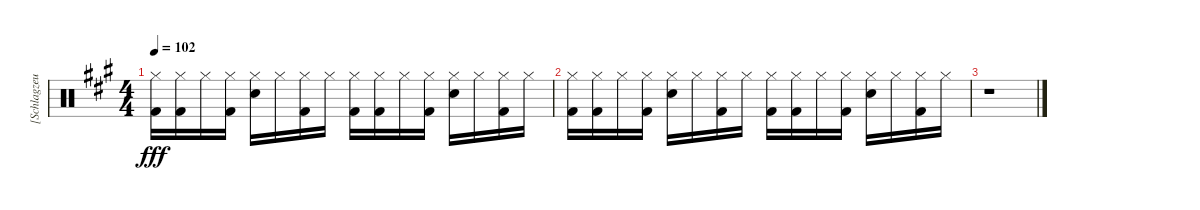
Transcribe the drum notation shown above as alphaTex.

\track ("[Schlagzeug]" "[Schlagzeu") {instrument percussion}
\staff {score}
\articulation defaults
\ts (4 4)
\tempo 102
\clef neutral
\ks f#minor
("Kick (hit) 2" "Hi-Hat (closed)").16{dy fff} ("Kick (hit) 2" "Hi-Hat (closed)").16 "Hi-Hat (closed)".16 ("Kick (hit) 2" "Hi-Hat (closed)").16 ("Electric Snare (hit)" "Hi-Hat (closed)").16 "Hi-Hat (closed)".16 ("Kick (hit) 2" "Hi-Hat (closed)").16 "Hi-Hat (closed)".16 ("Kick (hit) 2" "Hi-Hat (closed)").16 ("Kick (hit) 2" "Hi-Hat (closed)").16 "Hi-Hat (closed)".16 ("Kick (hit) 2" "Hi-Hat (closed)").16 ("Electric Snare (hit)" "Hi-Hat (closed)").16 "Hi-Hat (closed)".16 ("Kick (hit) 2" "Hi-Hat (closed)").16 "Hi-Hat (closed)".16 |
("Kick (hit) 2" "Hi-Hat (closed)").16 ("Kick (hit) 2" "Hi-Hat (closed)").16 "Hi-Hat (closed)".16 ("Kick (hit) 2" "Hi-Hat (closed)").16 ("Electric Snare (hit)" "Hi-Hat (closed)").16 "Hi-Hat (closed)".16 ("Kick (hit) 2" "Hi-Hat (closed)").16 "Hi-Hat (closed)".16 ("Kick (hit) 2" "Hi-Hat (closed)").16 ("Kick (hit) 2" "Hi-Hat (closed)").16 "Hi-Hat (closed)".16 ("Kick (hit) 2" "Hi-Hat (closed)").16 ("Electric Snare (hit)" "Hi-Hat (closed)").16 "Hi-Hat (closed)".16 ("Kick (hit) 2" "Hi-Hat (closed)").16 "Hi-Hat (closed)".16 |
r.1
